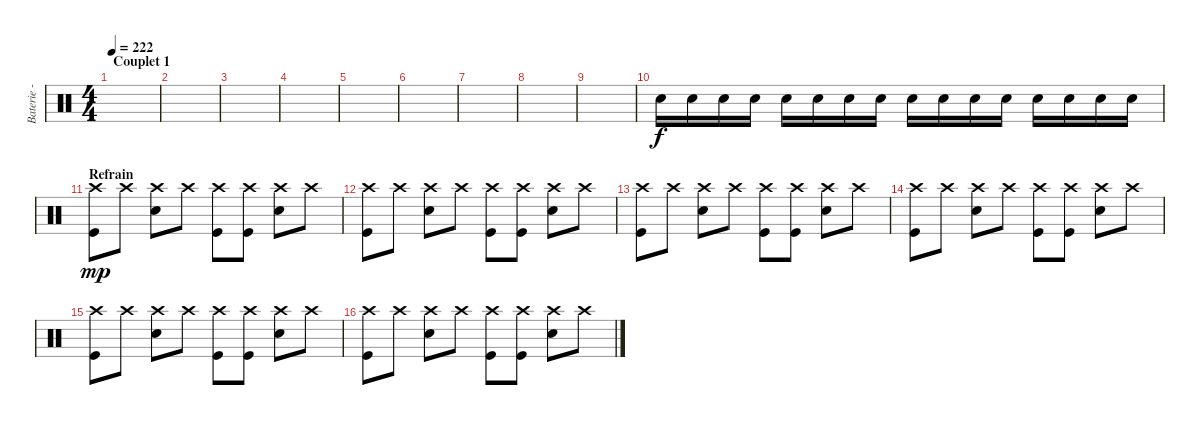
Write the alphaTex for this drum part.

\track ("Baterie - Guillaume" "Baterie - ") {instrument percussion}
\staff {score}
\articulation defaults
\ts (4 4)
\section ("" "Couplet 1")
\tempo 222
\clef neutral
\ks c
|
|
|
|
|
|
|
|
|
"Snare (hit) 2".16 "Snare (hit) 2".16 "Snare (hit) 2".16 "Snare (hit) 2".16 "Snare (hit) 2".16 "Snare (hit) 2".16 "Snare (hit) 2".16 "Snare (hit) 2".16 "Snare (hit) 2".16 "Snare (hit) 2".16 "Snare (hit) 2".16 "Snare (hit) 2".16 "Snare (hit) 2".16 "Snare (hit) 2".16 "Snare (hit) 2".16 "Snare (hit) 2".16 |
\section ("" "Refrain")
("Crash high (hit)" "Kick (hit)").8{dy mp} "Crash high (hit)".8 ("Crash high (hit)" "Snare (hit) 2").8 "Crash high (hit)".8 ("Crash high (hit)" "Kick (hit)").8 ("Crash high (hit)" "Kick (hit)").8 ("Crash high (hit)" "Snare (hit) 2").8 "Crash high (hit)".8 |
("Crash high (hit)" "Kick (hit)").8 "Crash high (hit)".8 ("Crash high (hit)" "Snare (hit) 2").8 "Crash high (hit)".8 ("Crash high (hit)" "Kick (hit)").8 ("Crash high (hit)" "Kick (hit)").8 ("Crash high (hit)" "Snare (hit) 2").8 "Crash high (hit)".8 |
("Crash high (hit)" "Kick (hit)").8 "Crash high (hit)".8 ("Crash high (hit)" "Snare (hit) 2").8 "Crash high (hit)".8 ("Crash high (hit)" "Kick (hit)").8 ("Crash high (hit)" "Kick (hit)").8 ("Crash high (hit)" "Snare (hit) 2").8 "Crash high (hit)".8 |
("Crash high (hit)" "Kick (hit)").8 "Crash high (hit)".8 ("Crash high (hit)" "Snare (hit) 2").8 "Crash high (hit)".8 ("Crash high (hit)" "Kick (hit)").8 ("Crash high (hit)" "Kick (hit)").8 ("Crash high (hit)" "Snare (hit) 2").8 "Crash high (hit)".8 |
("Crash high (hit)" "Kick (hit)").8 "Crash high (hit)".8 ("Crash high (hit)" "Snare (hit) 2").8 "Crash high (hit)".8 ("Crash high (hit)" "Kick (hit)").8 ("Crash high (hit)" "Kick (hit)").8 ("Crash high (hit)" "Snare (hit) 2").8 "Crash high (hit)".8 |
("Crash high (hit)" "Kick (hit)").8 "Crash high (hit)".8 ("Crash high (hit)" "Snare (hit) 2").8 "Crash high (hit)".8 ("Crash high (hit)" "Kick (hit)").8 ("Crash high (hit)" "Kick (hit)").8 ("Crash high (hit)" "Snare (hit) 2").8 "Crash high (hit)".8
